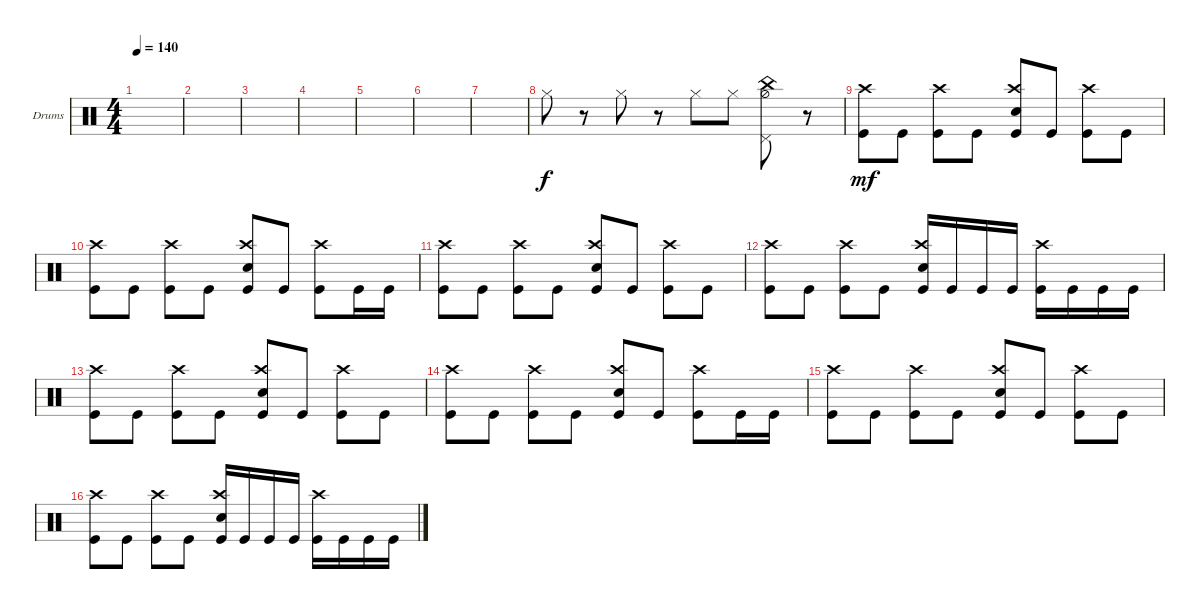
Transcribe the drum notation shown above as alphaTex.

\bracketExtendMode groupsimilarinstruments
\firstSystemTrackNameOrientation horizontal
\otherSystemsTrackNameOrientation horizontal
\track ("Drumkit" "Drums") {instrument percussion}
\staff {score}
\articulation defaults
\ts (4 4)
\tempo 140
\clef neutral
\ks c
|
|
|
|
|
|
|
"Hi-Hat (closed)".8 r.8 "Hi-Hat (closed)".8 r.8 "Hi-Hat (closed)".8 "Hi-Hat (closed)".8 ("Pedal Hi-Hat (hit)" "China (hit)" "Hi-Hat (half)").8 r.8 |
("Kick (hit)" "Crash high (hit)").8{dy mf} "Kick (hit)".8 ("Kick (hit)" "Crash high (hit)").8 "Kick (hit)".8 ("Kick (hit)" "Snare (hit) 2" "Crash high (hit)").8 "Kick (hit)".8 ("Kick (hit)" "Crash high (hit)").8 "Kick (hit)".8 |
("Kick (hit)" "Crash high (hit)").8 "Kick (hit)".8 ("Kick (hit)" "Crash high (hit)").8 "Kick (hit)".8 ("Kick (hit)" "Snare (hit) 2" "Crash high (hit)").8 "Kick (hit)".8 ("Kick (hit)" "Crash high (hit)").8 "Kick (hit)".16 "Kick (hit)".16 |
("Kick (hit)" "Crash high (hit)").8 "Kick (hit)".8 ("Kick (hit)" "Crash high (hit)").8 "Kick (hit)".8 ("Kick (hit)" "Snare (hit) 2" "Crash high (hit)").8 "Kick (hit)".8 ("Kick (hit)" "Crash high (hit)").8 "Kick (hit)".8 |
("Kick (hit)" "Crash high (hit)").8 "Kick (hit)".8 ("Kick (hit)" "Crash high (hit)").8 "Kick (hit)".8 ("Kick (hit)" "Snare (hit) 2" "Crash high (hit)").16 "Kick (hit)".16 "Kick (hit)".16 "Kick (hit)".16 ("Kick (hit)" "Crash high (hit)").16 "Kick (hit)".16 "Kick (hit)".16 "Kick (hit)".16 |
("Kick (hit)" "Crash high (hit)").8 "Kick (hit)".8 ("Kick (hit)" "Crash high (hit)").8 "Kick (hit)".8 ("Kick (hit)" "Snare (hit) 2" "Crash high (hit)").8 "Kick (hit)".8 ("Kick (hit)" "Crash high (hit)").8 "Kick (hit)".8 |
("Kick (hit)" "Crash high (hit)").8 "Kick (hit)".8 ("Kick (hit)" "Crash high (hit)").8 "Kick (hit)".8 ("Kick (hit)" "Snare (hit) 2" "Crash high (hit)").8 "Kick (hit)".8 ("Kick (hit)" "Crash high (hit)").8 "Kick (hit)".16 "Kick (hit)".16 |
("Kick (hit)" "Crash high (hit)").8 "Kick (hit)".8 ("Kick (hit)" "Crash high (hit)").8 "Kick (hit)".8 ("Kick (hit)" "Snare (hit) 2" "Crash high (hit)").8 "Kick (hit)".8 ("Kick (hit)" "Crash high (hit)").8 "Kick (hit)".8 |
("Kick (hit)" "Crash high (hit)").8 "Kick (hit)".8 ("Kick (hit)" "Crash high (hit)").8 "Kick (hit)".8 ("Kick (hit)" "Snare (hit) 2" "Crash high (hit)").16 "Kick (hit)".16 "Kick (hit)".16 "Kick (hit)".16 ("Kick (hit)" "Crash high (hit)").16 "Kick (hit)".16 "Kick (hit)".16 "Kick (hit)".16
